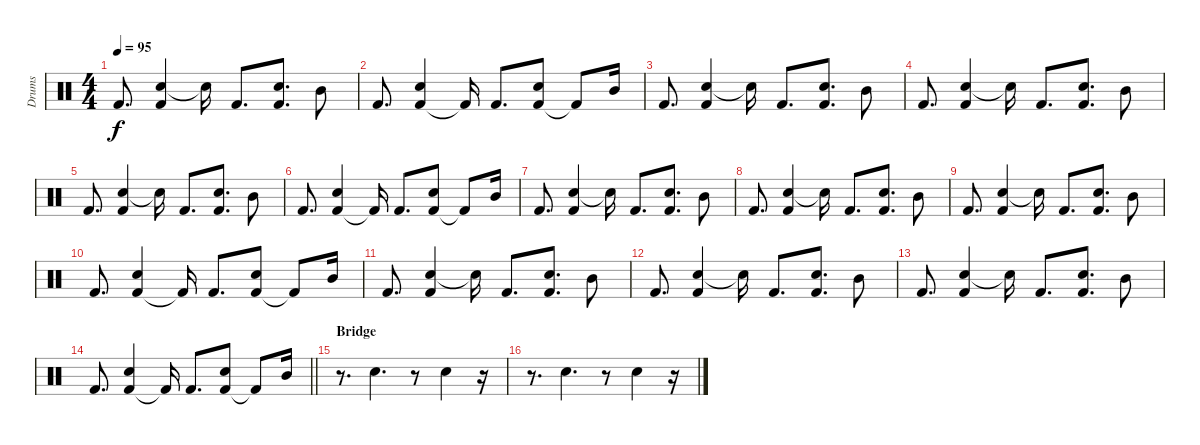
\track ("Drums" "Drums") {instrument percussion}
\staff {score}
\articulation defaults
\ts (4 4)
\tempo 95
\clef neutral
\ks c "Kick (hit) 2".8{d dy f}
("Hand Clap (hit)" "Kick (hit) 2").4 "Hand Clap (hit)"{t}.16 "Kick (hit) 2".8{d} ("Kick (hit) 2" "Hand Clap (hit)").8{d} "Mid Tom (hit)".8 |
"Kick (hit) 2".8{d} ("Kick (hit) 2" "Hand Clap (hit)").4 "Kick (hit) 2"{t}.16 "Kick (hit) 2".8{d} ("Kick (hit) 2" "Hand Clap (hit)").8 "Kick (hit) 2"{t}.8 "Mid Tom (hit)".16 |
"Kick (hit) 2".8{d} ("Hand Clap (hit)" "Kick (hit) 2").4 "Hand Clap (hit)"{t}.16 "Kick (hit) 2".8{d} ("Kick (hit) 2" "Hand Clap (hit)").8{d} "Mid Tom (hit)".8 |
"Kick (hit) 2".8{d} ("Hand Clap (hit)" "Kick (hit) 2").4 "Hand Clap (hit)"{t}.16 "Kick (hit) 2".8{d} ("Kick (hit) 2" "Hand Clap (hit)").8{d} "Mid Tom (hit)".8 |
"Kick (hit) 2".8{d} ("Hand Clap (hit)" "Kick (hit) 2").4 "Hand Clap (hit)"{t}.16 "Kick (hit) 2".8{d} ("Kick (hit) 2" "Hand Clap (hit)").8{d} "Mid Tom (hit)".8 |
"Kick (hit) 2".8{d} ("Kick (hit) 2" "Hand Clap (hit)").4 "Kick (hit) 2"{t}.16 "Kick (hit) 2".8{d} ("Kick (hit) 2" "Hand Clap (hit)").8 "Kick (hit) 2"{t}.8 "Mid Tom (hit)".16 |
"Kick (hit) 2".8{d} ("Hand Clap (hit)" "Kick (hit) 2").4 "Hand Clap (hit)"{t}.16 "Kick (hit) 2".8{d} ("Kick (hit) 2" "Hand Clap (hit)").8{d} "Mid Tom (hit)".8 |
"Kick (hit) 2".8{d} ("Hand Clap (hit)" "Kick (hit) 2").4 "Hand Clap (hit)"{t}.16 "Kick (hit) 2".8{d} ("Kick (hit) 2" "Hand Clap (hit)").8{d} "Mid Tom (hit)".8 |
"Kick (hit) 2".8{d} ("Hand Clap (hit)" "Kick (hit) 2").4 "Hand Clap (hit)"{t}.16 "Kick (hit) 2".8{d} ("Kick (hit) 2" "Hand Clap (hit)").8{d} "Mid Tom (hit)".8 |
"Kick (hit) 2".8{d} ("Kick (hit) 2" "Hand Clap (hit)").4 "Kick (hit) 2"{t}.16 "Kick (hit) 2".8{d} ("Kick (hit) 2" "Hand Clap (hit)").8 "Kick (hit) 2"{t}.8 "Mid Tom (hit)".16 |
"Kick (hit) 2".8{d} ("Hand Clap (hit)" "Kick (hit) 2").4 "Hand Clap (hit)"{t}.16 "Kick (hit) 2".8{d} ("Kick (hit) 2" "Hand Clap (hit)").8{d} "Mid Tom (hit)".8 |
"Kick (hit) 2".8{d} ("Hand Clap (hit)" "Kick (hit) 2").4 "Hand Clap (hit)"{t}.16 "Kick (hit) 2".8{d} ("Kick (hit) 2" "Hand Clap (hit)").8{d} "Mid Tom (hit)".8 |
"Kick (hit) 2".8{d} ("Hand Clap (hit)" "Kick (hit) 2").4 "Hand Clap (hit)"{t}.16 "Kick (hit) 2".8{d} ("Kick (hit) 2" "Hand Clap (hit)").8{d} "Mid Tom (hit)".8 |
\barLineRight lightlight "Kick (hit) 2".8{d}
("Kick (hit) 2" "Hand Clap (hit)").4 "Kick (hit) 2"{t}.16 "Kick (hit) 2".8{d} ("Kick (hit) 2" "Hand Clap (hit)").8 "Kick (hit) 2"{t}.8 "Mid Tom (hit)".16 |
\section ("" "Bridge")
r.8{d} "Hand Clap (hit)".4{d} r.8 "Hand Clap (hit)".4 r.16 |
r.8{d} "Hand Clap (hit)".4{d} r.8 "Hand Clap (hit)".4 r.16
